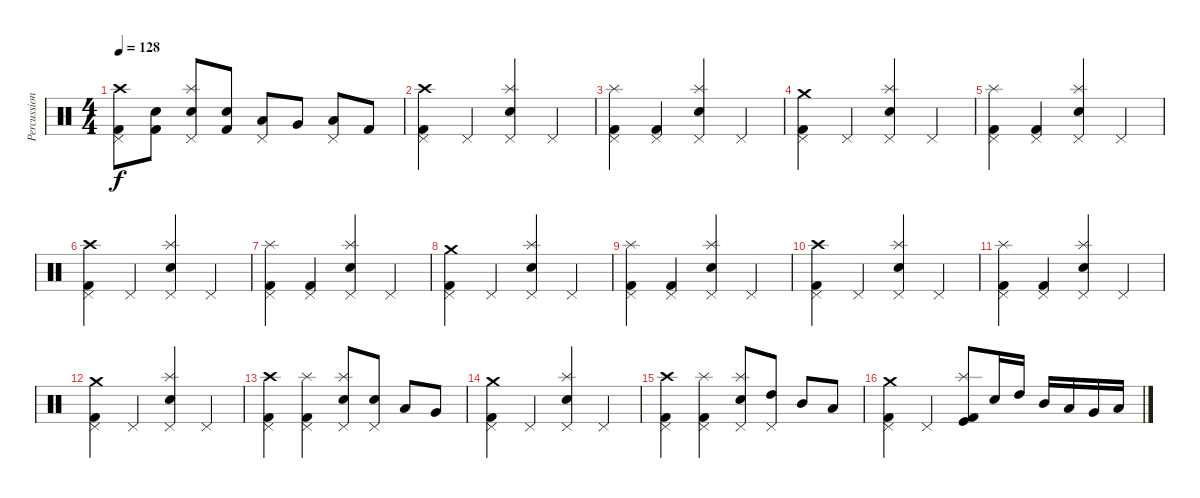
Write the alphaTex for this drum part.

\track ("Percussion" "Percussion") {instrument percussion}
\staff {score}
\articulation defaults
\ts (4 4)
\tempo 128
\clef neutral
\ks c
("Crash high (hit)" "Kick (hit) 2" "Pedal Hi-Hat (hit)").8{dy f} ("Snare (hit) 2" "Kick (hit) 2").8 ("Splash (hit)" "Electric Snare (hit)" "Pedal Hi-Hat (hit)").8 ("Electric Snare (hit)" "Kick (hit) 2").8 ("Low Tom (hit)" "Pedal Hi-Hat (hit)").8 "Very Low Tom (hit)".8 ("Low Floor Tom (hit)" "Pedal Hi-Hat (hit)").8 "Kick (hit) 2".8 |
("Crash high (hit)" "Kick (hit) 2" "Pedal Hi-Hat (hit)").4 "Pedal Hi-Hat (hit)".4 ("Splash (hit)" "Electric Snare (hit)" "Pedal Hi-Hat (hit)").4 "Pedal Hi-Hat (hit)".4 |
("Splash (hit)" "Kick (hit) 2" "Pedal Hi-Hat (hit)").4 ("Kick (hit) 2" "Pedal Hi-Hat (hit)").4 ("Splash (hit)" "Electric Snare (hit)" "Pedal Hi-Hat (hit)").4 "Pedal Hi-Hat (hit)".4 |
("Crash medium (hit)" "Kick (hit) 2" "Pedal Hi-Hat (hit)").4 "Pedal Hi-Hat (hit)".4 ("Splash (hit)" "Electric Snare (hit)" "Pedal Hi-Hat (hit)").4 "Pedal Hi-Hat (hit)".4 |
("Splash (hit)" "Kick (hit) 2" "Pedal Hi-Hat (hit)").4 ("Kick (hit) 2" "Pedal Hi-Hat (hit)").4 ("Splash (hit)" "Electric Snare (hit)" "Pedal Hi-Hat (hit)").4 "Pedal Hi-Hat (hit)".4 |
("Crash high (hit)" "Kick (hit) 2" "Pedal Hi-Hat (hit)").4 "Pedal Hi-Hat (hit)".4 ("Splash (hit)" "Electric Snare (hit)" "Pedal Hi-Hat (hit)").4 "Pedal Hi-Hat (hit)".4 |
("Splash (hit)" "Kick (hit) 2" "Pedal Hi-Hat (hit)").4 ("Kick (hit) 2" "Pedal Hi-Hat (hit)").4 ("Splash (hit)" "Electric Snare (hit)" "Pedal Hi-Hat (hit)").4 "Pedal Hi-Hat (hit)".4 |
("Crash medium (hit)" "Kick (hit) 2" "Pedal Hi-Hat (hit)").4 "Pedal Hi-Hat (hit)".4 ("Splash (hit)" "Electric Snare (hit)" "Pedal Hi-Hat (hit)").4 "Pedal Hi-Hat (hit)".4 |
("Splash (hit)" "Kick (hit) 2" "Pedal Hi-Hat (hit)").4 ("Kick (hit) 2" "Pedal Hi-Hat (hit)").4 ("Splash (hit)" "Electric Snare (hit)" "Pedal Hi-Hat (hit)").4 "Pedal Hi-Hat (hit)".4 |
("Crash high (hit)" "Kick (hit) 2" "Pedal Hi-Hat (hit)").4 "Pedal Hi-Hat (hit)".4 ("Splash (hit)" "Electric Snare (hit)" "Pedal Hi-Hat (hit)").4 "Pedal Hi-Hat (hit)".4 |
("Splash (hit)" "Kick (hit) 2" "Pedal Hi-Hat (hit)").4 ("Kick (hit) 2" "Pedal Hi-Hat (hit)").4 ("Splash (hit)" "Electric Snare (hit)" "Pedal Hi-Hat (hit)").4 "Pedal Hi-Hat (hit)".4 |
("Crash medium (hit)" "Kick (hit) 2" "Pedal Hi-Hat (hit)").4 "Pedal Hi-Hat (hit)".4 ("Splash (hit)" "Electric Snare (hit)" "Pedal Hi-Hat (hit)").4 "Pedal Hi-Hat (hit)".4 |
("Crash high (hit)" "Kick (hit) 2" "Pedal Hi-Hat (hit)").4 ("Splash (hit)" "Kick (hit) 2" "Pedal Hi-Hat (hit)").4 ("Splash (hit)" "Electric Snare (hit)" "Pedal Hi-Hat (hit)").8 ("Snare (hit) 2" "Pedal Hi-Hat (hit)").8 "Low Tom (hit)".8 "Very Low Tom (hit)".8 |
("Crash medium (hit)" "Kick (hit) 2" "Pedal Hi-Hat (hit)").4 "Pedal Hi-Hat (hit)".4 ("Splash (hit)" "Electric Snare (hit)" "Pedal Hi-Hat (hit)").4 "Pedal Hi-Hat (hit)".4 |
("Crash high (hit)" "Kick (hit) 2" "Pedal Hi-Hat (hit)").4 ("Splash (hit)" "Kick (hit) 2" "Pedal Hi-Hat (hit)").4 ("Splash (hit)" "Electric Snare (hit)" "Pedal Hi-Hat (hit)").8 ("High Tom (hit)" "Pedal Hi-Hat (hit)").8 "Mid Tom (hit)".8 "Low Floor Tom (hit)".8 |
("Crash medium (hit)" "Kick (hit) 2" "Pedal Hi-Hat (hit)").4 "Pedal Hi-Hat (hit)".4 ("Splash (hit)" "Kick (hit)" "Kick (hit) 2").8 "Snare (hit) 2".16 "High Tom (hit)".16 "Mid Tom (hit)".16 "Low Tom (hit)".16 "Very Low Tom (hit)".16 "Low Floor Tom (hit)".16
